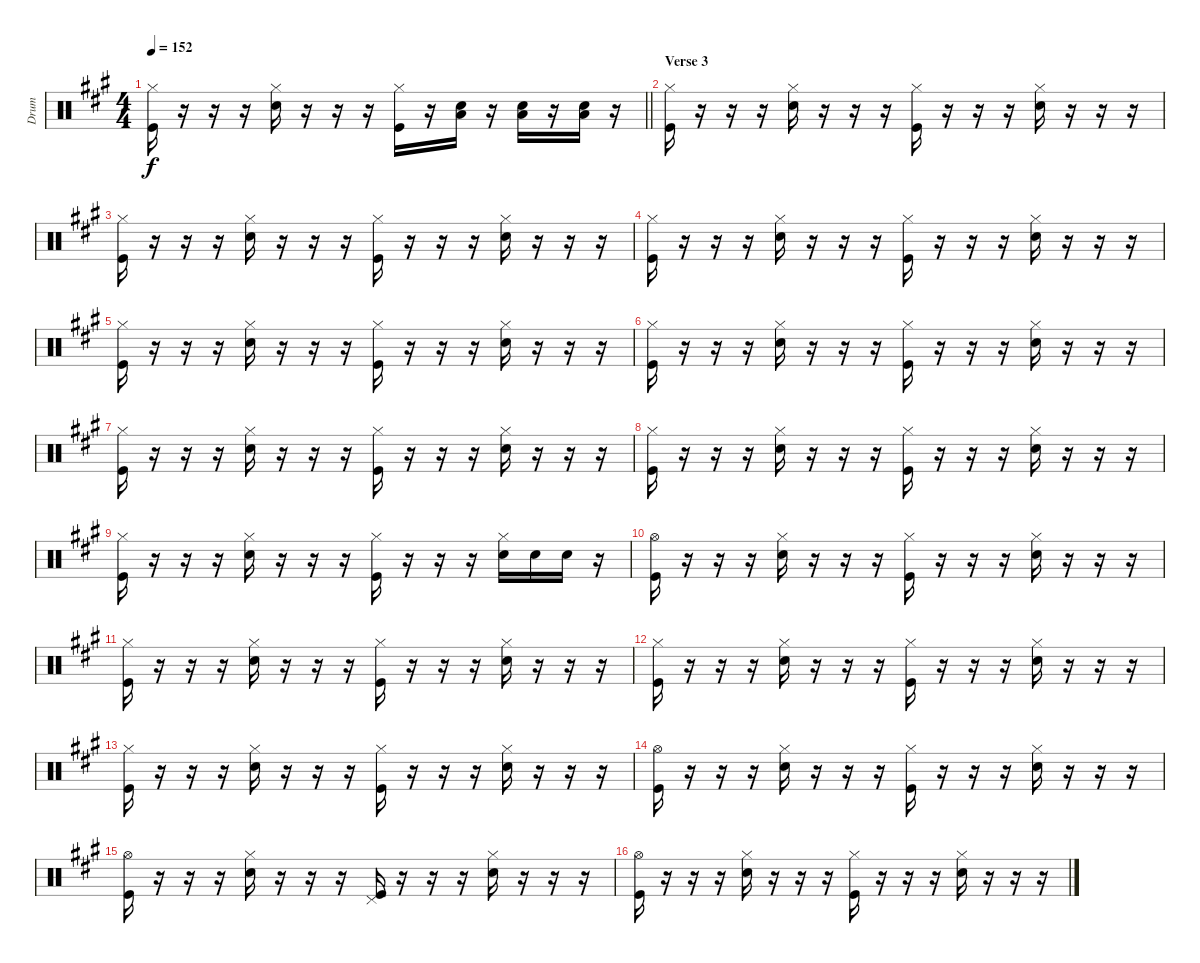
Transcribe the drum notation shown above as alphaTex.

\track ("Drum" "Drum") {instrument percussion}
\staff {score}
\articulation defaults
\ts (4 4)
\tempo 152
\clef neutral
\barLineRight lightlight
\ks a
("Kick (hit)" "Hi-Hat (closed)").16{dy f} r.16 r.16 r.16 ("Snare (hit) 2" "Hi-Hat (closed)").16 r.16 r.16 r.16 ("Kick (hit)" "Hi-Hat (closed)").16 r.16 ("Snare (hit) 2" "Low Floor Tom (hit)").16 r.16 ("Snare (hit) 2" "Low Floor Tom (hit)").16 r.16 ("Snare (hit) 2" "Low Floor Tom (hit)").16 r.16 |
\section ("" "Verse 3")
("Kick (hit)" "Hi-Hat (closed)").16 r.16 r.16 r.16 ("Snare (hit) 2" "Hi-Hat (closed)").16 r.16 r.16 r.16 ("Kick (hit)" "Hi-Hat (closed)").16 r.16 r.16 r.16 ("Snare (hit) 2" "Hi-Hat (closed)").16 r.16 r.16 r.16 |
("Kick (hit)" "Hi-Hat (closed)").16 r.16 r.16 r.16 ("Snare (hit) 2" "Hi-Hat (closed)").16 r.16 r.16 r.16 ("Kick (hit)" "Hi-Hat (closed)").16 r.16 r.16 r.16 ("Snare (hit) 2" "Hi-Hat (closed)").16 r.16 r.16 r.16 |
("Kick (hit)" "Hi-Hat (closed)").16 r.16 r.16 r.16 ("Snare (hit) 2" "Hi-Hat (closed)").16 r.16 r.16 r.16 ("Kick (hit)" "Hi-Hat (closed)").16 r.16 r.16 r.16 ("Snare (hit) 2" "Hi-Hat (closed)").16 r.16 r.16 r.16 |
("Kick (hit)" "Hi-Hat (closed)").16 r.16 r.16 r.16 ("Snare (hit) 2" "Hi-Hat (closed)").16 r.16 r.16 r.16 ("Kick (hit)" "Hi-Hat (closed)").16 r.16 r.16 r.16 ("Snare (hit) 2" "Hi-Hat (closed)").16 r.16 r.16 r.16 |
("Kick (hit)" "Hi-Hat (closed)").16 r.16 r.16 r.16 ("Snare (hit) 2" "Hi-Hat (closed)").16 r.16 r.16 r.16 ("Kick (hit)" "Hi-Hat (closed)").16 r.16 r.16 r.16 ("Snare (hit) 2" "Hi-Hat (closed)").16 r.16 r.16 r.16 |
("Kick (hit)" "Hi-Hat (closed)").16 r.16 r.16 r.16 ("Snare (hit) 2" "Hi-Hat (closed)").16 r.16 r.16 r.16 ("Kick (hit)" "Hi-Hat (closed)").16 r.16 r.16 r.16 ("Snare (hit) 2" "Hi-Hat (closed)").16 r.16 r.16 r.16 |
("Kick (hit)" "Hi-Hat (closed)").16 r.16 r.16 r.16 ("Snare (hit) 2" "Hi-Hat (closed)").16 r.16 r.16 r.16 ("Kick (hit)" "Hi-Hat (closed)").16 r.16 r.16 r.16 ("Snare (hit) 2" "Hi-Hat (closed)").16 r.16 r.16 r.16 |
("Kick (hit)" "Hi-Hat (closed)").16 r.16 r.16 r.16 ("Snare (hit) 2" "Hi-Hat (closed)").16 r.16 r.16 r.16 ("Kick (hit)" "Hi-Hat (closed)").16 r.16 r.16 r.16 ("Snare (hit) 2" "Hi-Hat (closed)").16 "Snare (hit) 2".16 "Snare (hit) 2".16 r.16 |
("Kick (hit)" "Hi-Hat (open)").16 r.16 r.16 r.16 ("Snare (hit) 2" "Hi-Hat (closed)").16 r.16 r.16 r.16 ("Kick (hit)" "Hi-Hat (closed)").16 r.16 r.16 r.16 ("Snare (hit) 2" "Hi-Hat (closed)").16 r.16 r.16 r.16 |
("Kick (hit)" "Hi-Hat (closed)").16 r.16 r.16 r.16 ("Snare (hit) 2" "Hi-Hat (closed)").16 r.16 r.16 r.16 ("Kick (hit)" "Hi-Hat (closed)").16 r.16 r.16 r.16 ("Snare (hit) 2" "Hi-Hat (closed)").16 r.16 r.16 r.16 |
("Kick (hit)" "Hi-Hat (closed)").16 r.16 r.16 r.16 ("Snare (hit) 2" "Hi-Hat (closed)").16 r.16 r.16 r.16 ("Kick (hit)" "Hi-Hat (closed)").16 r.16 r.16 r.16 ("Snare (hit) 2" "Hi-Hat (closed)").16 r.16 r.16 r.16 |
("Kick (hit)" "Hi-Hat (closed)").16 r.16 r.16 r.16 ("Snare (hit) 2" "Hi-Hat (closed)").16 r.16 r.16 r.16 ("Kick (hit)" "Hi-Hat (closed)").16 r.16 r.16 r.16 ("Snare (hit) 2" "Hi-Hat (closed)").16 r.16 r.16 r.16 |
("Kick (hit)" "Hi-Hat (open)").16 r.16 r.16 r.16 ("Snare (hit) 2" "Hi-Hat (closed)").16 r.16 r.16 r.16 ("Kick (hit)" "Hi-Hat (closed)").16 r.16 r.16 r.16 ("Snare (hit) 2" "Hi-Hat (closed)").16 r.16 r.16 r.16 |
("Kick (hit)" "Hi-Hat (open)").16 r.16 r.16 r.16 ("Snare (hit) 2" "Hi-Hat (closed)").16 r.16 r.16 r.16 ("Kick (hit)" "Pedal Hi-Hat (hit)").16 r.16 r.16 r.16 ("Snare (hit) 2" "Hi-Hat (closed)").16 r.16 r.16 r.16 |
("Kick (hit)" "Hi-Hat (open)").16 r.16 r.16 r.16 ("Snare (hit) 2" "Hi-Hat (closed)").16 r.16 r.16 r.16 ("Kick (hit)" "Hi-Hat (closed)").16 r.16 r.16 r.16 ("Snare (hit) 2" "Hi-Hat (closed)").16 r.16 r.16 r.16
